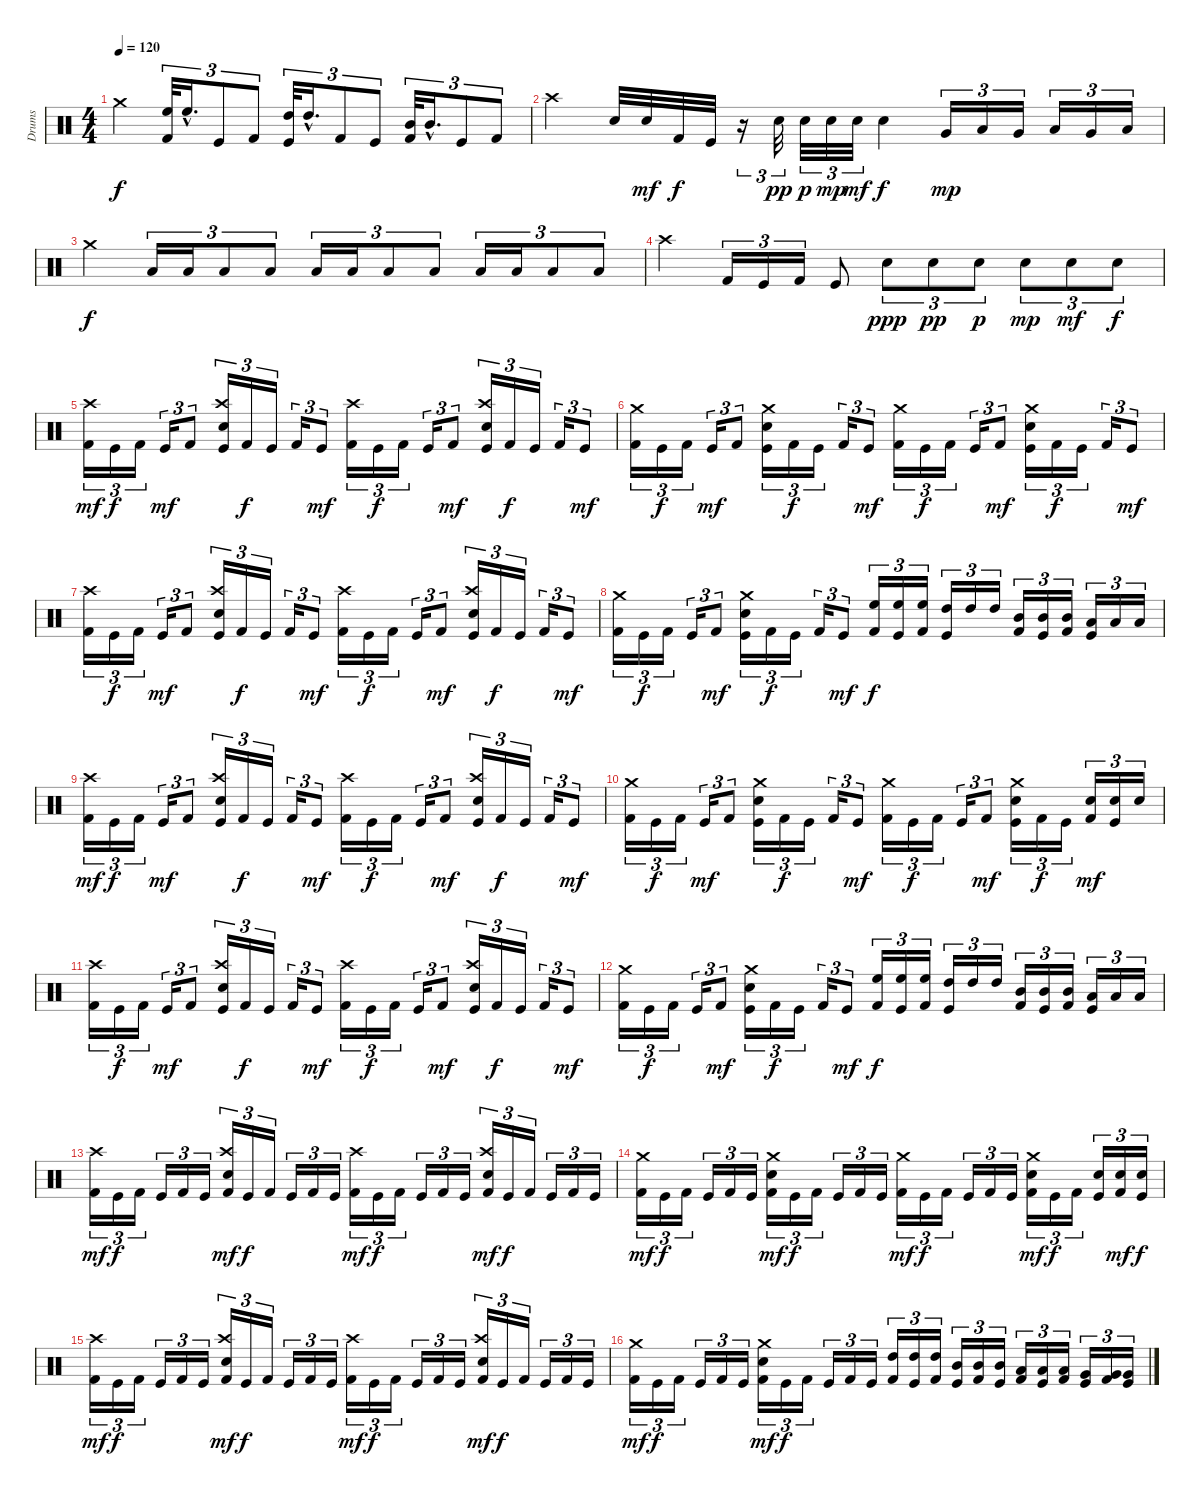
\track ("Drums" "Drums") {instrument percussion}
\staff {score}
\articulation defaults
\ts (4 4)
\tempo 120
\clef neutral
\ks c "Crash medium (hit)".4{dy f}
("High Floor Tom (hit)" "Kick (hit) 2").32{tu (3 2)} "High Floor Tom (hit)"{hac}.16{d tu (3 2)} "Kick (hit)".8{tu (3 2)} "Kick (hit) 2".8{tu (3 2)} ("High Tom (hit)" "Kick (hit)").32{tu (3 2)} "High Tom (hit)"{hac}.16{d tu (3 2)} "Kick (hit) 2".8{tu (3 2)} "Kick (hit)".8{tu (3 2)} ("Mid Tom (hit)" "Kick (hit) 2").32{tu (3 2)} "Mid Tom (hit)"{hac}.16{d tu (3 2)} "Kick (hit)".8{tu (3 2)} "Kick (hit) 2".8{tu (3 2)} |
"Crash high (hit)".4 "Snare (hit) 2".32 "Snare (hit) 2".32{dy mf} "Kick (hit) 2".32{dy f} "Kick (hit)".32 r.16{tu (3 2)} "Electric Snare (hit)".32{tu (3 2) dy pp} "Electric Snare (hit)".32{tu (3 2) dy p} "Electric Snare (hit)".32{tu (3 2) dy mp} "Electric Snare (hit)".32{tu (3 2) dy mf} "Electric Snare (hit)".4{dy f} "Very Low Tom (hit)".16{tu (3 2) dy mp} "Low Floor Tom (hit)".16{tu (3 2)} "Very Low Tom (hit)".16{tu (3 2)} "Low Floor Tom (hit)".16{tu (3 2)} "Very Low Tom (hit)".16{tu (3 2)} "Low Floor Tom (hit)".16{tu (3 2)} |
"Crash medium (hit)".4{dy f} "Low Floor Tom (hit)".16{tu (3 2)} "Low Floor Tom (hit)".16{tu (3 2)} "Low Floor Tom (hit)".8{tu (3 2)} "Low Floor Tom (hit)".8{tu (3 2)} "Low Floor Tom (hit)".16{tu (3 2)} "Low Floor Tom (hit)".16{tu (3 2)} "Low Floor Tom (hit)".8{tu (3 2)} "Low Floor Tom (hit)".8{tu (3 2)} "Low Floor Tom (hit)".16{tu (3 2)} "Low Floor Tom (hit)".16{tu (3 2)} "Low Floor Tom (hit)".8{tu (3 2)} "Low Floor Tom (hit)".8{tu (3 2)} |
"Crash high (hit)".4 "Kick (hit) 2".16{tu (3 2)} "Kick (hit)".16{tu (3 2)} "Kick (hit) 2".16{tu (3 2)} "Kick (hit)".8 "Electric Snare (hit)".8{tu (3 2) dy ppp} "Electric Snare (hit)".8{tu (3 2) dy pp} "Electric Snare (hit)".8{tu (3 2) dy p} "Electric Snare (hit)".8{tu (3 2) dy mp} "Electric Snare (hit)".8{tu (3 2) dy mf} "Electric Snare (hit)".8{tu (3 2) dy f} |
("Crash high (hit)" "Kick (hit) 2").16{tu (3 2) dy mf} "Kick (hit)".16{tu (3 2) dy f} "Kick (hit) 2".16{tu (3 2)} "Kick (hit)".16{tu (3 2) dy mf} "Kick (hit) 2".8{tu (3 2)} ("Crash high (hit)" "Snare (hit) 2" "Kick (hit)").16{tu (3 2)} "Kick (hit) 2".16{tu (3 2) dy f} "Kick (hit)".16{tu (3 2)} "Kick (hit) 2".16{tu (3 2)} "Kick (hit)".8{tu (3 2) dy mf} ("Crash high (hit)" "Kick (hit) 2").16{tu (3 2)} "Kick (hit)".16{tu (3 2) dy f} "Kick (hit) 2".16{tu (3 2)} "Kick (hit)".16{tu (3 2)} "Kick (hit) 2".8{tu (3 2) dy mf} ("Crash high (hit)" "Snare (hit) 2" "Kick (hit)").16{tu (3 2)} "Kick (hit) 2".16{tu (3 2) dy f} "Kick (hit)".16{tu (3 2)} "Kick (hit) 2".16{tu (3 2)} "Kick (hit)".8{tu (3 2) dy mf} |
("Crash medium (hit)" "Kick (hit) 2").16{tu (3 2)} "Kick (hit)".16{tu (3 2) dy f} "Kick (hit) 2".16{tu (3 2)} "Kick (hit)".16{tu (3 2) dy mf} "Kick (hit) 2".8{tu (3 2)} ("Crash medium (hit)" "Snare (hit) 2" "Kick (hit)").16{tu (3 2)} "Kick (hit) 2".16{tu (3 2) dy f} "Kick (hit)".16{tu (3 2)} "Kick (hit) 2".16{tu (3 2)} "Kick (hit)".8{tu (3 2) dy mf} ("Crash medium (hit)" "Kick (hit) 2").16{tu (3 2)} "Kick (hit)".16{tu (3 2) dy f} "Kick (hit) 2".16{tu (3 2)} "Kick (hit)".16{tu (3 2)} "Kick (hit) 2".8{tu (3 2) dy mf} ("Crash medium (hit)" "Snare (hit) 2" "Kick (hit)").16{tu (3 2)} "Kick (hit) 2".16{tu (3 2) dy f} "Kick (hit)".16{tu (3 2)} "Kick (hit) 2".16{tu (3 2)} "Kick (hit)".8{tu (3 2) dy mf} |
("Crash high (hit)" "Kick (hit) 2").16{tu (3 2)} "Kick (hit)".16{tu (3 2) dy f} "Kick (hit) 2".16{tu (3 2)} "Kick (hit)".16{tu (3 2) dy mf} "Kick (hit) 2".8{tu (3 2)} ("Crash high (hit)" "Snare (hit) 2" "Kick (hit)").16{tu (3 2)} "Kick (hit) 2".16{tu (3 2) dy f} "Kick (hit)".16{tu (3 2)} "Kick (hit) 2".16{tu (3 2)} "Kick (hit)".8{tu (3 2) dy mf} ("Crash high (hit)" "Kick (hit) 2").16{tu (3 2)} "Kick (hit)".16{tu (3 2) dy f} "Kick (hit) 2".16{tu (3 2)} "Kick (hit)".16{tu (3 2)} "Kick (hit) 2".8{tu (3 2) dy mf} ("Crash high (hit)" "Snare (hit) 2" "Kick (hit)").16{tu (3 2)} "Kick (hit) 2".16{tu (3 2) dy f} "Kick (hit)".16{tu (3 2)} "Kick (hit) 2".16{tu (3 2)} "Kick (hit)".8{tu (3 2) dy mf} |
("Crash medium (hit)" "Kick (hit) 2").16{tu (3 2)} "Kick (hit)".16{tu (3 2) dy f} "Kick (hit) 2".16{tu (3 2)} "Kick (hit)".16{tu (3 2)} "Kick (hit) 2".8{tu (3 2) dy mf} ("Crash medium (hit)" "Snare (hit) 2" "Kick (hit)").16{tu (3 2)} "Kick (hit) 2".16{tu (3 2) dy f} "Kick (hit)".16{tu (3 2)} "Kick (hit) 2".16{tu (3 2)} "Kick (hit)".8{tu (3 2) dy mf} ("High Floor Tom (hit)" "Kick (hit) 2").16{tu (3 2) dy f} ("High Floor Tom (hit)" "Kick (hit)").16{tu (3 2)} ("High Floor Tom (hit)" "Kick (hit) 2").16{tu (3 2)} ("High Tom (hit)" "Kick (hit)").16{tu (3 2)} "High Tom (hit)".16{tu (3 2)} "High Tom (hit)".16{tu (3 2)} ("Mid Tom (hit)" "Kick (hit) 2").16{tu (3 2)} ("Mid Tom (hit)" "Kick (hit)").16{tu (3 2)} ("Mid Tom (hit)" "Kick (hit) 2").16{tu (3 2)} ("Low Tom (hit)" "Kick (hit)").16{tu (3 2)} "Low Tom (hit)".16{tu (3 2)} "Low Tom (hit)".16{tu (3 2)} |
("Crash high (hit)" "Kick (hit) 2").16{tu (3 2) dy mf} "Kick (hit)".16{tu (3 2) dy f} "Kick (hit) 2".16{tu (3 2)} "Kick (hit)".16{tu (3 2) dy mf} "Kick (hit) 2".8{tu (3 2)} ("Crash high (hit)" "Snare (hit) 2" "Kick (hit)").16{tu (3 2)} "Kick (hit) 2".16{tu (3 2) dy f} "Kick (hit)".16{tu (3 2)} "Kick (hit) 2".16{tu (3 2)} "Kick (hit)".8{tu (3 2) dy mf} ("Crash high (hit)" "Kick (hit) 2").16{tu (3 2)} "Kick (hit)".16{tu (3 2) dy f} "Kick (hit) 2".16{tu (3 2)} "Kick (hit)".16{tu (3 2)} "Kick (hit) 2".8{tu (3 2) dy mf} ("Crash high (hit)" "Snare (hit) 2" "Kick (hit)").16{tu (3 2)} "Kick (hit) 2".16{tu (3 2) dy f} "Kick (hit)".16{tu (3 2)} "Kick (hit) 2".16{tu (3 2)} "Kick (hit)".8{tu (3 2) dy mf} |
("Crash medium (hit)" "Kick (hit) 2").16{tu (3 2)} "Kick (hit)".16{tu (3 2) dy f} "Kick (hit) 2".16{tu (3 2)} "Kick (hit)".16{tu (3 2) dy mf} "Kick (hit) 2".8{tu (3 2)} ("Crash medium (hit)" "Snare (hit) 2" "Kick (hit)").16{tu (3 2)} "Kick (hit) 2".16{tu (3 2) dy f} "Kick (hit)".16{tu (3 2)} "Kick (hit) 2".16{tu (3 2)} "Kick (hit)".8{tu (3 2) dy mf} ("Crash medium (hit)" "Kick (hit) 2").16{tu (3 2)} "Kick (hit)".16{tu (3 2) dy f} "Kick (hit) 2".16{tu (3 2)} "Kick (hit)".16{tu (3 2)} "Kick (hit) 2".8{tu (3 2) dy mf} ("Crash medium (hit)" "Snare (hit) 2" "Kick (hit)").16{tu (3 2)} "Kick (hit) 2".16{tu (3 2) dy f} "Kick (hit)".16{tu (3 2)} ("Snare (hit) 2" "Kick (hit) 2").16{tu (3 2) dy mf} ("Snare (hit) 2" "Kick (hit)").16{tu (3 2)} "Snare (hit) 2".16{tu (3 2)} |
("Crash high (hit)" "Kick (hit) 2").16{tu (3 2)} "Kick (hit)".16{tu (3 2) dy f} "Kick (hit) 2".16{tu (3 2)} "Kick (hit)".16{tu (3 2) dy mf} "Kick (hit) 2".8{tu (3 2)} ("Crash high (hit)" "Snare (hit) 2" "Kick (hit)").16{tu (3 2)} "Kick (hit) 2".16{tu (3 2) dy f} "Kick (hit)".16{tu (3 2)} "Kick (hit) 2".16{tu (3 2)} "Kick (hit)".8{tu (3 2) dy mf} ("Crash high (hit)" "Kick (hit) 2").16{tu (3 2)} "Kick (hit)".16{tu (3 2) dy f} "Kick (hit) 2".16{tu (3 2)} "Kick (hit)".16{tu (3 2)} "Kick (hit) 2".8{tu (3 2) dy mf} ("Crash high (hit)" "Snare (hit) 2" "Kick (hit)").16{tu (3 2)} "Kick (hit) 2".16{tu (3 2) dy f} "Kick (hit)".16{tu (3 2)} "Kick (hit) 2".16{tu (3 2)} "Kick (hit)".8{tu (3 2) dy mf} |
("Crash medium (hit)" "Kick (hit) 2").16{tu (3 2)} "Kick (hit)".16{tu (3 2) dy f} "Kick (hit) 2".16{tu (3 2)} "Kick (hit)".16{tu (3 2)} "Kick (hit) 2".8{tu (3 2) dy mf} ("Crash medium (hit)" "Snare (hit) 2" "Kick (hit)").16{tu (3 2)} "Kick (hit) 2".16{tu (3 2) dy f} "Kick (hit)".16{tu (3 2)} "Kick (hit) 2".16{tu (3 2)} "Kick (hit)".8{tu (3 2) dy mf} ("High Floor Tom (hit)" "Kick (hit) 2").16{tu (3 2) dy f} ("High Floor Tom (hit)" "Kick (hit)").16{tu (3 2)} ("High Floor Tom (hit)" "Kick (hit) 2").16{tu (3 2)} ("High Tom (hit)" "Kick (hit)").16{tu (3 2)} "High Tom (hit)".16{tu (3 2)} "High Tom (hit)".16{tu (3 2)} ("Mid Tom (hit)" "Kick (hit) 2").16{tu (3 2)} ("Mid Tom (hit)" "Kick (hit)").16{tu (3 2)} ("Mid Tom (hit)" "Kick (hit) 2").16{tu (3 2)} ("Low Tom (hit)" "Kick (hit)").16{tu (3 2)} "Low Tom (hit)".16{tu (3 2)} "Low Tom (hit)".16{tu (3 2)} |
("Crash high (hit)" "Kick (hit) 2").16{tu (3 2) dy mf} "Kick (hit)".16{tu (3 2) dy f} "Kick (hit) 2".16{tu (3 2)} "Kick (hit)".16{tu (3 2)} "Kick (hit) 2".16{tu (3 2)} "Kick (hit)".16{tu (3 2)} ("Crash high (hit)" "Snare (hit) 2" "Kick (hit) 2").16{tu (3 2) dy mf} "Kick (hit)".16{tu (3 2) dy f} "Kick (hit) 2".16{tu (3 2)} "Kick (hit)".16{tu (3 2)} "Kick (hit) 2".16{tu (3 2)} "Kick (hit)".16{tu (3 2)} ("Crash high (hit)" "Kick (hit) 2").16{tu (3 2) dy mf} "Kick (hit)".16{tu (3 2) dy f} "Kick (hit) 2".16{tu (3 2)} "Kick (hit)".16{tu (3 2)} "Kick (hit) 2".16{tu (3 2)} "Kick (hit)".16{tu (3 2)} ("Crash high (hit)" "Snare (hit) 2" "Kick (hit) 2").16{tu (3 2) dy mf} "Kick (hit)".16{tu (3 2) dy f} "Kick (hit) 2".16{tu (3 2)} "Kick (hit)".16{tu (3 2)} "Kick (hit) 2".16{tu (3 2)} "Kick (hit)".16{tu (3 2)} |
("Crash medium (hit)" "Kick (hit) 2").16{tu (3 2) dy mf} "Kick (hit)".16{tu (3 2) dy f} "Kick (hit) 2".16{tu (3 2)} "Kick (hit)".16{tu (3 2)} "Kick (hit) 2".16{tu (3 2)} "Kick (hit)".16{tu (3 2)} ("Crash medium (hit)" "Snare (hit) 2" "Kick (hit) 2").16{tu (3 2) dy mf} "Kick (hit)".16{tu (3 2) dy f} "Kick (hit) 2".16{tu (3 2)} "Kick (hit)".16{tu (3 2)} "Kick (hit) 2".16{tu (3 2)} "Kick (hit)".16{tu (3 2)} ("Crash medium (hit)" "Kick (hit) 2").16{tu (3 2) dy mf} "Kick (hit)".16{tu (3 2) dy f} "Kick (hit) 2".16{tu (3 2)} "Kick (hit)".16{tu (3 2)} "Kick (hit) 2".16{tu (3 2)} "Kick (hit)".16{tu (3 2)} ("Crash medium (hit)" "Snare (hit) 2" "Kick (hit) 2").16{tu (3 2) dy mf} "Kick (hit)".16{tu (3 2) dy f} "Kick (hit) 2".16{tu (3 2)} ("Snare (hit) 2" "Kick (hit)").16{tu (3 2)} ("Snare (hit) 2" "Kick (hit) 2").16{tu (3 2) dy mf} ("Snare (hit) 2" "Kick (hit)").16{tu (3 2) dy f} |
("Crash high (hit)" "Kick (hit) 2").16{tu (3 2) dy mf} "Kick (hit)".16{tu (3 2) dy f} "Kick (hit) 2".16{tu (3 2)} "Kick (hit)".16{tu (3 2)} "Kick (hit) 2".16{tu (3 2)} "Kick (hit)".16{tu (3 2)} ("Crash high (hit)" "Snare (hit) 2" "Kick (hit) 2").16{tu (3 2) dy mf} "Kick (hit)".16{tu (3 2) dy f} "Kick (hit) 2".16{tu (3 2)} "Kick (hit)".16{tu (3 2)} "Kick (hit) 2".16{tu (3 2)} "Kick (hit)".16{tu (3 2)} ("Crash high (hit)" "Kick (hit) 2").16{tu (3 2) dy mf} "Kick (hit)".16{tu (3 2) dy f} "Kick (hit) 2".16{tu (3 2)} "Kick (hit)".16{tu (3 2)} "Kick (hit) 2".16{tu (3 2)} "Kick (hit)".16{tu (3 2)} ("Crash high (hit)" "Snare (hit) 2" "Kick (hit) 2").16{tu (3 2) dy mf} "Kick (hit)".16{tu (3 2) dy f} "Kick (hit) 2".16{tu (3 2)} "Kick (hit)".16{tu (3 2)} "Kick (hit) 2".16{tu (3 2)} "Kick (hit)".16{tu (3 2)} |
("Crash medium (hit)" "Kick (hit) 2").16{tu (3 2) dy mf} "Kick (hit)".16{tu (3 2) dy f} "Kick (hit) 2".16{tu (3 2)} "Kick (hit)".16{tu (3 2)} "Kick (hit) 2".16{tu (3 2)} "Kick (hit)".16{tu (3 2)} ("Crash medium (hit)" "Snare (hit) 2" "Kick (hit) 2").16{tu (3 2) dy mf} "Kick (hit)".16{tu (3 2) dy f} "Kick (hit) 2".16{tu (3 2)} "Kick (hit)".16{tu (3 2)} "Kick (hit) 2".16{tu (3 2)} "Kick (hit)".16{tu (3 2)} ("High Tom (hit)" "Kick (hit) 2").16{tu (3 2)} ("High Tom (hit)" "Kick (hit)").16{tu (3 2)} ("High Tom (hit)" "Kick (hit) 2").16{tu (3 2)} ("Mid Tom (hit)" "Kick (hit)").16{tu (3 2)} ("Mid Tom (hit)" "Kick (hit) 2").16{tu (3 2)} ("Mid Tom (hit)" "Kick (hit)").16{tu (3 2)} ("Low Tom (hit)" "Kick (hit) 2").16{tu (3 2)} ("Low Tom (hit)" "Kick (hit)").16{tu (3 2)} ("Low Tom (hit)" "Kick (hit) 2").16{tu (3 2)} ("Very Low Tom (hit)" "Kick (hit)").16{tu (3 2)} ("Very Low Tom (hit)" "Kick (hit) 2").16{tu (3 2)} ("Very Low Tom (hit)" "Kick (hit)").16{tu (3 2)}
